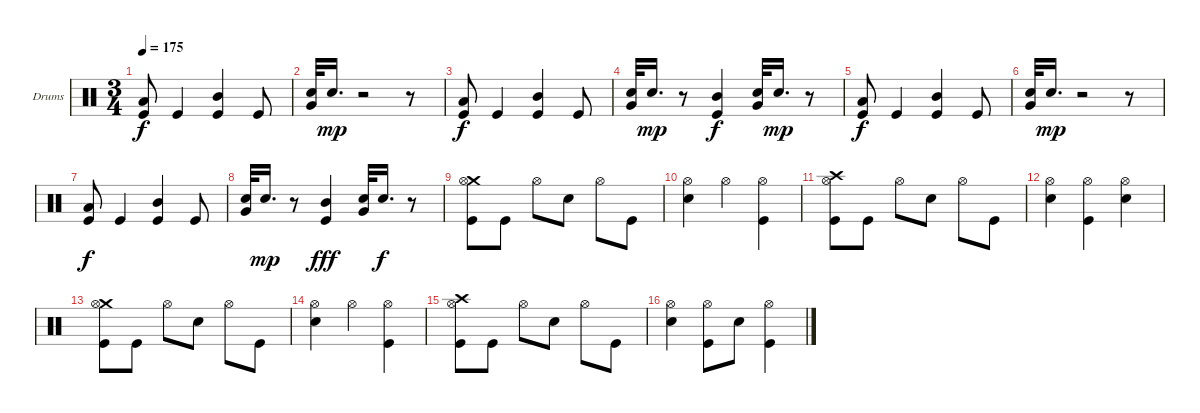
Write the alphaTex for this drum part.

\bracketExtendMode groupsimilarinstruments
\firstSystemTrackNameOrientation horizontal
\otherSystemsTrackNameOrientation horizontal
\track ("Drums" "Drums") {instrument percussion}
\staff {score}
\articulation defaults
\ts (3 4)
\tempo 175
\clef neutral
\ks c
("Low Tom (hit)" "Kick (hit)").8{dy f} "Kick (hit)".4 ("Mid Tom (hit)" "Kick (hit)").4 "Kick (hit)".8 |
("Very Low Tom (hit)" "Snare (hit) 2").32 "Snare (hit) 2".16{d dy mp} r.2 r.8 |
("Low Tom (hit)" "Kick (hit)").8{dy f} "Kick (hit)".4 ("Mid Tom (hit)" "Kick (hit)").4 "Kick (hit)".8 |
("Very Low Tom (hit)" "Snare (hit) 2").32 "Snare (hit) 2".16{d dy mp} r.8 ("Mid Tom (hit)" "Kick (hit)").4{dy f} ("Very Low Tom (hit)" "Snare (hit) 2").32 "Snare (hit) 2".16{d dy mp} r.8 |
("Low Tom (hit)" "Kick (hit)").8{dy f} "Kick (hit)".4 ("Mid Tom (hit)" "Kick (hit)").4 "Kick (hit)".8 |
("Very Low Tom (hit)" "Snare (hit) 2").32 "Snare (hit) 2".16{d dy mp} r.2 r.8 |
("Low Tom (hit)" "Kick (hit)").8{dy f} "Kick (hit)".4 ("Mid Tom (hit)" "Kick (hit)").4 "Kick (hit)".8 |
("Very Low Tom (hit)" "Snare (hit) 2").32 "Snare (hit) 2".16{d dy mp} r.8 ("Mid Tom (hit)" "Kick (hit)").4{dy fff} ("Very Low Tom (hit)" "Snare (hit) 2").32 "Snare (hit) 2".16{d dy f} r.8 |
("Crash medium (hit)" "Hi-Hat (open)" "Kick (hit)").8 "Kick (hit)".8 "Hi-Hat (open)".8 "Snare (hit) 2".8 "Hi-Hat (open)".8 "Kick (hit)".8 |
("Hi-Hat (open)" "Snare (hit) 2").4 "Hi-Hat (open)".4 ("Hi-Hat (open)" "Kick (hit)").4 |
("Crash high (hit)" "Hi-Hat (open)" "Kick (hit)").8 "Kick (hit)".8 "Hi-Hat (open)".8 "Snare (hit) 2".8 "Hi-Hat (open)".8 "Kick (hit)".8 |
("Hi-Hat (open)" "Snare (hit) 2").4 ("Hi-Hat (open)" "Kick (hit)").4 ("Hi-Hat (open)" "Snare (hit) 2").4 |
("Crash medium (hit)" "Hi-Hat (open)" "Kick (hit)").8 "Kick (hit)".8 "Hi-Hat (open)".8 "Snare (hit) 2".8 "Hi-Hat (open)".8 "Kick (hit)".8 |
("Hi-Hat (open)" "Snare (hit) 2").4 "Hi-Hat (open)".4 ("Hi-Hat (open)" "Kick (hit)").4 |
("Crash high (hit)" "Hi-Hat (open)" "Kick (hit)").8 "Kick (hit)".8 "Hi-Hat (open)".8 "Snare (hit) 2".8 "Hi-Hat (open)".8 "Kick (hit)".8 |
("Hi-Hat (open)" "Snare (hit) 2").4 ("Hi-Hat (open)" "Kick (hit)").8 "Snare (hit) 2".8 ("Hi-Hat (open)" "Kick (hit)").4
